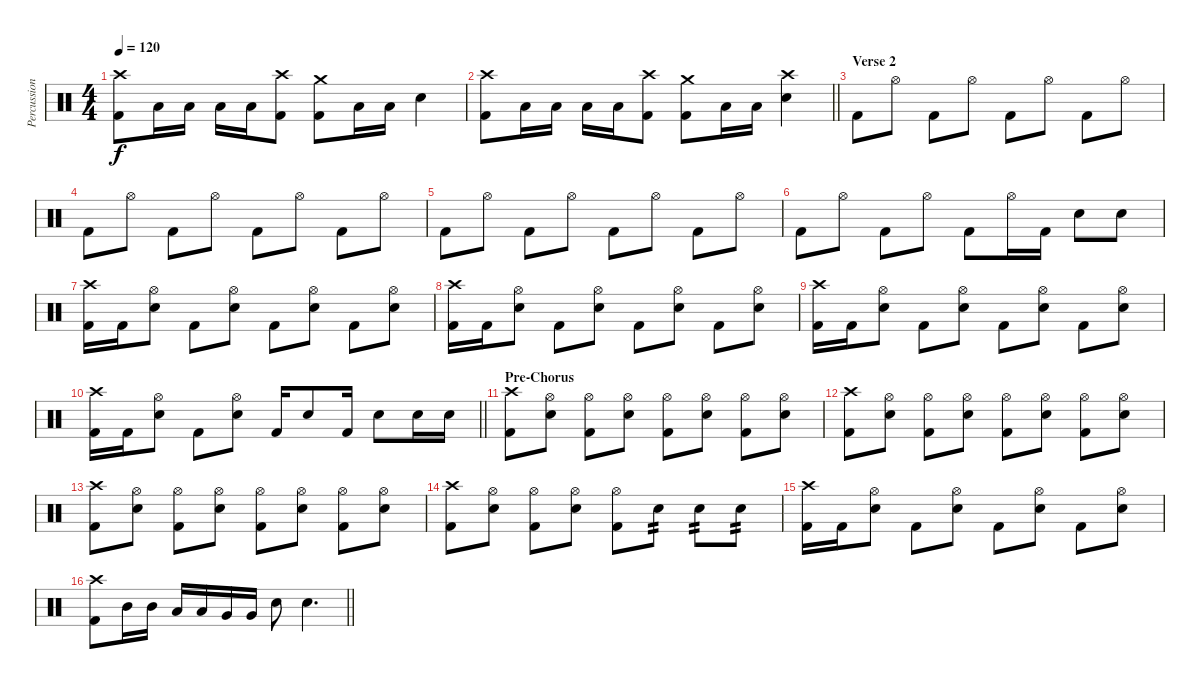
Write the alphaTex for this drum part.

\track ("Percussion" "Percussion") {instrument percussion}
\staff {score}
\articulation defaults
\ts (4 4)
\tempo 120
\clef neutral
\ks c
("Crash high (hit)" "Kick (hit) 2").8{dy f} "Low Tom (hit)".16 "Low Tom (hit)".16 "Low Tom (hit)".16 "Low Tom (hit)".16 ("Crash high (hit)" "Kick (hit) 2").8 ("Crash medium (hit)" "Kick (hit) 2").8 "Low Tom (hit)".16 "Low Tom (hit)".16 "Snare (hit) 2".4 |
\barLineRight lightlight
("Crash high (hit)" "Kick (hit) 2").8 "Low Tom (hit)".16 "Low Tom (hit)".16 "Low Tom (hit)".16 "Low Tom (hit)".16 ("Crash high (hit)" "Kick (hit) 2").8 ("Crash medium (hit)" "Kick (hit) 2").8 "Low Tom (hit)".16 "Low Tom (hit)".16 ("Crash high (hit)" "Snare (hit) 2").4 |
\section ("" "Verse 2")
"Kick (hit) 2".8 "Hi-Hat (open)".8 "Kick (hit) 2".8 "Hi-Hat (open)".8 "Kick (hit) 2".8 "Hi-Hat (open)".8 "Kick (hit) 2".8 "Hi-Hat (open)".8 |
"Kick (hit) 2".8 "Hi-Hat (open)".8 "Kick (hit) 2".8 "Hi-Hat (open)".8 "Kick (hit) 2".8 "Hi-Hat (open)".8 "Kick (hit) 2".8 "Hi-Hat (open)".8 |
"Kick (hit) 2".8 "Hi-Hat (open)".8 "Kick (hit) 2".8 "Hi-Hat (open)".8 "Kick (hit) 2".8 "Hi-Hat (open)".8 "Kick (hit) 2".8 "Hi-Hat (open)".8 |
"Kick (hit) 2".8 "Hi-Hat (open)".8 "Kick (hit) 2".8 "Hi-Hat (open)".8 "Kick (hit) 2".8 "Hi-Hat (open)".16 "Kick (hit) 2".16 "Snare (hit) 2".8 "Snare (hit) 2".8 |
("Crash high (hit)" "Kick (hit) 2").16 "Kick (hit) 2".16 ("Hi-Hat (open)" "Snare (hit) 2").8 "Kick (hit) 2".8 ("Hi-Hat (open)" "Snare (hit) 2").8 "Kick (hit) 2".8 ("Hi-Hat (open)" "Snare (hit) 2").8 "Kick (hit) 2".8 ("Hi-Hat (open)" "Snare (hit) 2").8 |
("Crash high (hit)" "Kick (hit) 2").16 "Kick (hit) 2".16 ("Hi-Hat (open)" "Snare (hit) 2").8 "Kick (hit) 2".8 ("Hi-Hat (open)" "Snare (hit) 2").8 "Kick (hit) 2".8 ("Hi-Hat (open)" "Snare (hit) 2").8 "Kick (hit) 2".8 ("Hi-Hat (open)" "Snare (hit) 2").8 |
("Crash high (hit)" "Kick (hit) 2").16 "Kick (hit) 2".16 ("Hi-Hat (open)" "Snare (hit) 2").8 "Kick (hit) 2".8 ("Hi-Hat (open)" "Snare (hit) 2").8 "Kick (hit) 2".8 ("Hi-Hat (open)" "Snare (hit) 2").8 "Kick (hit) 2".8 ("Hi-Hat (open)" "Snare (hit) 2").8 |
\barLineRight lightlight
("Crash high (hit)" "Kick (hit) 2").16 "Kick (hit) 2".16 ("Hi-Hat (open)" "Snare (hit) 2").8 "Kick (hit) 2".8 ("Hi-Hat (open)" "Snare (hit) 2").8 "Kick (hit) 2".16 "Snare (hit) 2".8 "Kick (hit) 2".16 "Snare (hit) 2".8 "Snare (hit) 2".16 "Snare (hit) 2".16 |
\section ("" "Pre-Chorus")
("Crash high (hit)" "Kick (hit) 2").8 ("Hi-Hat (open)" "Snare (hit) 2").8 ("Hi-Hat (open)" "Kick (hit) 2").8 ("Hi-Hat (open)" "Snare (hit) 2").8 ("Hi-Hat (open)" "Kick (hit) 2").8 ("Hi-Hat (open)" "Snare (hit) 2").8 ("Hi-Hat (open)" "Kick (hit) 2").8 ("Hi-Hat (open)" "Snare (hit) 2").8 |
("Crash high (hit)" "Kick (hit) 2").8 ("Hi-Hat (open)" "Snare (hit) 2").8 ("Hi-Hat (open)" "Kick (hit) 2").8 ("Hi-Hat (open)" "Snare (hit) 2").8 ("Hi-Hat (open)" "Kick (hit) 2").8 ("Hi-Hat (open)" "Snare (hit) 2").8 ("Hi-Hat (open)" "Kick (hit) 2").8 ("Hi-Hat (open)" "Snare (hit) 2").8 |
("Crash high (hit)" "Kick (hit) 2").8 ("Hi-Hat (open)" "Snare (hit) 2").8 ("Hi-Hat (open)" "Kick (hit) 2").8 ("Hi-Hat (open)" "Snare (hit) 2").8 ("Hi-Hat (open)" "Kick (hit) 2").8 ("Hi-Hat (open)" "Snare (hit) 2").8 ("Hi-Hat (open)" "Kick (hit) 2").8 ("Hi-Hat (open)" "Snare (hit) 2").8 |
("Crash high (hit)" "Kick (hit) 2").8 ("Hi-Hat (open)" "Snare (hit) 2").8 ("Hi-Hat (open)" "Kick (hit) 2").8 ("Hi-Hat (open)" "Snare (hit) 2").8 ("Hi-Hat (open)" "Kick (hit) 2").8 "Snare (hit) 2".8{tp 2} "Snare (hit) 2".8{tp 2} "Snare (hit) 2".8{tp 2} |
("Crash high (hit)" "Kick (hit) 2").16 "Kick (hit) 2".16 ("Hi-Hat (open)" "Snare (hit) 2").8 "Kick (hit) 2".8 ("Hi-Hat (open)" "Snare (hit) 2").8 "Kick (hit) 2".8 ("Hi-Hat (open)" "Snare (hit) 2").8 "Kick (hit) 2".8 ("Hi-Hat (open)" "Snare (hit) 2").8 |
\barLineRight lightlight
("Crash high (hit)" "Kick (hit) 2").8 "Mid Tom (hit)".16 "Mid Tom (hit)".16 "Low Tom (hit)".16 "Low Tom (hit)".16 "Very Low Tom (hit)".16 "Very Low Tom (hit)".16 "Snare (hit) 2".8 "Snare (hit) 2".4{d}
